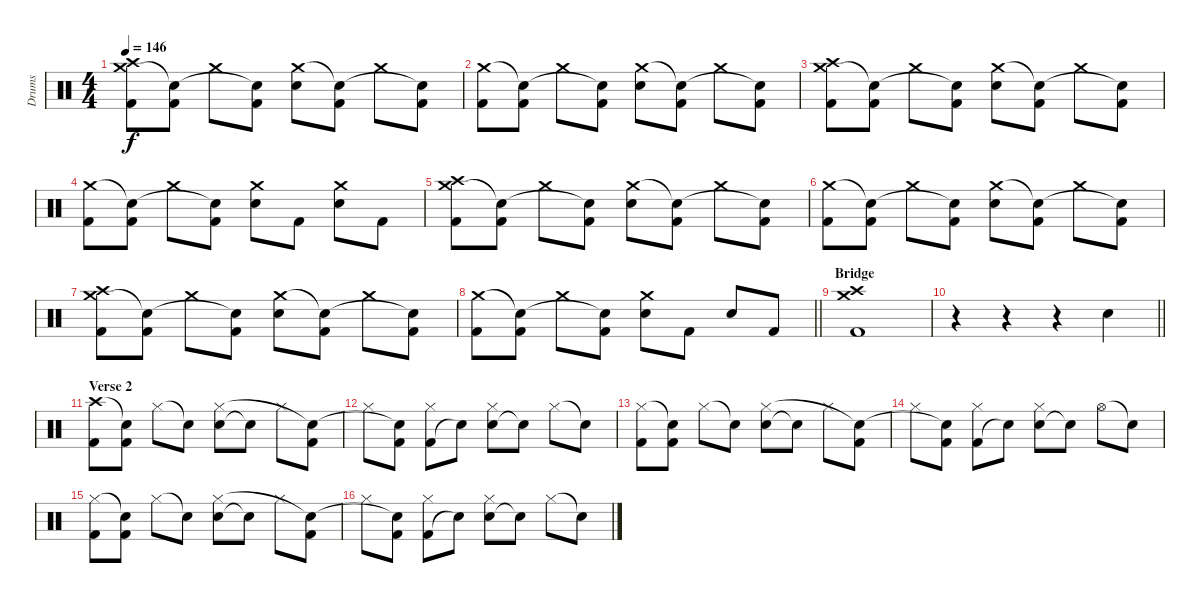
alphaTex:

\track ("Drums" "Drums") {instrument percussion}
\staff {score}
\articulation defaults
\ts (4 4)
\tempo 146
\clef neutral
\ks c
("Kick (hit) 2" "Crash medium (hit)" "Crash high (hit)").8{dy f} ("Kick (hit) 2" "Snare (hit)"{t}).8 "Crash medium (hit)".8 ("Kick (hit) 2" "Snare (hit)"{t}).8 ("Electric Snare (hit)" "Crash medium (hit)").8 ("Kick (hit) 2" "Snare (hit)"{t}).8 "Crash medium (hit)".8 ("Kick (hit) 2" "Snare (hit)"{t}).8 |
("Kick (hit) 2" "Crash medium (hit)").8 ("Kick (hit) 2" "Snare (hit)"{t}).8 "Crash medium (hit)".8 ("Kick (hit) 2" "Snare (hit)"{t}).8 ("Electric Snare (hit)" "Crash medium (hit)").8 ("Kick (hit) 2" "Snare (hit)"{t}).8 "Crash medium (hit)".8 ("Kick (hit) 2" "Snare (hit)"{t}).8 |
("Kick (hit) 2" "Crash medium (hit)" "Crash high (hit)").8 ("Kick (hit) 2" "Snare (hit)"{t}).8 "Crash medium (hit)".8 ("Kick (hit) 2" "Snare (hit)"{t}).8 ("Electric Snare (hit)" "Crash medium (hit)").8 ("Kick (hit) 2" "Snare (hit)"{t}).8 "Crash medium (hit)".8 ("Kick (hit) 2" "Snare (hit)"{t}).8 |
("Kick (hit) 2" "Crash medium (hit)").8 ("Kick (hit) 2" "Snare (hit)"{t}).8 "Crash medium (hit)".8 ("Kick (hit) 2" "Snare (hit)"{t}).8 ("Electric Snare (hit)" "Crash medium (hit)").8 "Kick (hit) 2".8 ("Electric Snare (hit)" "Crash medium (hit)").8 "Kick (hit) 2".8 |
("Kick (hit) 2" "Crash medium (hit)" "Crash high (hit)").8 ("Kick (hit) 2" "Snare (hit)"{t}).8 "Crash medium (hit)".8 ("Kick (hit) 2" "Snare (hit)"{t}).8 ("Electric Snare (hit)" "Crash medium (hit)").8 ("Kick (hit) 2" "Snare (hit)"{t}).8 "Crash medium (hit)".8 ("Kick (hit) 2" "Snare (hit)"{t}).8 |
("Kick (hit) 2" "Crash medium (hit)").8 ("Kick (hit) 2" "Snare (hit)"{t}).8 "Crash medium (hit)".8 ("Kick (hit) 2" "Snare (hit)"{t}).8 ("Electric Snare (hit)" "Crash medium (hit)").8 ("Kick (hit) 2" "Snare (hit)"{t}).8 "Crash medium (hit)".8 ("Kick (hit) 2" "Snare (hit)"{t}).8 |
("Kick (hit) 2" "Crash medium (hit)" "Crash high (hit)").8 ("Kick (hit) 2" "Snare (hit)"{t}).8 "Crash medium (hit)".8 ("Kick (hit) 2" "Snare (hit)"{t}).8 ("Electric Snare (hit)" "Crash medium (hit)").8 ("Kick (hit) 2" "Snare (hit)"{t}).8 "Crash medium (hit)".8 ("Kick (hit) 2" "Snare (hit)"{t}).8 |
\barLineRight lightlight
("Kick (hit) 2" "Crash medium (hit)").8 ("Kick (hit) 2" "Snare (hit)"{t}).8 "Crash medium (hit)".8 ("Kick (hit) 2" "Snare (hit)"{t}).8 ("Electric Snare (hit)" "Crash medium (hit)").8 "Kick (hit) 2".8 "Electric Snare (hit)".8 "Kick (hit) 2".8 |
\section ("" "Bridge")
("Kick (hit) 2" "Crash medium (hit)" "Crash high (hit)").1 |
\barLineRight lightlight
r.4 r.4 r.4 "Electric Snare (hit)".4 |
\section ("" "Verse 2")
("Kick (hit) 2" "Crash high (hit)").8 ("Kick (hit) 2" "Snare (hit)"{t}).8 "Hi-Hat (closed)".8 "Snare (hit)"{t}.8 ("Electric Snare (hit)" "Hi-Hat (closed)").8 "Snare (hit)"{t}.8 "Hi-Hat (closed)".8 ("Kick (hit) 2" "Snare (hit)"{t}).8 |
"Hi-Hat (closed)".8 ("Kick (hit) 2" "Snare (hit)"{t}).8 ("Kick (hit) 2" "Hi-Hat (closed)").8 "Snare (hit)"{t}.8 ("Electric Snare (hit)" "Hi-Hat (closed)").8 "Snare (hit)"{t}.8 "Hi-Hat (closed)".8 "Snare (hit)"{t}.8 |
("Kick (hit) 2" "Hi-Hat (closed)").8 ("Kick (hit) 2" "Snare (hit)"{t}).8 "Hi-Hat (closed)".8 "Snare (hit)"{t}.8 ("Electric Snare (hit)" "Hi-Hat (closed)").8 "Snare (hit)"{t}.8 "Hi-Hat (closed)".8 ("Kick (hit) 2" "Snare (hit)"{t}).8 |
"Hi-Hat (closed)".8 ("Kick (hit) 2" "Snare (hit)"{t}).8 ("Kick (hit) 2" "Hi-Hat (closed)").8 "Snare (hit)"{t}.8 ("Electric Snare (hit)" "Hi-Hat (closed)").8 "Snare (hit)"{t}.8 "Hi-Hat (open)".8 "Snare (hit)"{t}.8 |
("Kick (hit) 2" "Hi-Hat (closed)").8 ("Kick (hit) 2" "Snare (hit)"{t}).8 "Hi-Hat (closed)".8 "Snare (hit)"{t}.8 ("Electric Snare (hit)" "Hi-Hat (closed)").8 "Snare (hit)"{t}.8 "Hi-Hat (closed)".8 ("Kick (hit) 2" "Snare (hit)"{t}).8 |
"Hi-Hat (closed)".8 ("Kick (hit) 2" "Snare (hit)"{t}).8 ("Kick (hit) 2" "Hi-Hat (closed)").8 "Snare (hit)"{t}.8 ("Electric Snare (hit)" "Hi-Hat (closed)").8 "Snare (hit)"{t}.8 "Hi-Hat (closed)".8 "Snare (hit)"{t}.8
